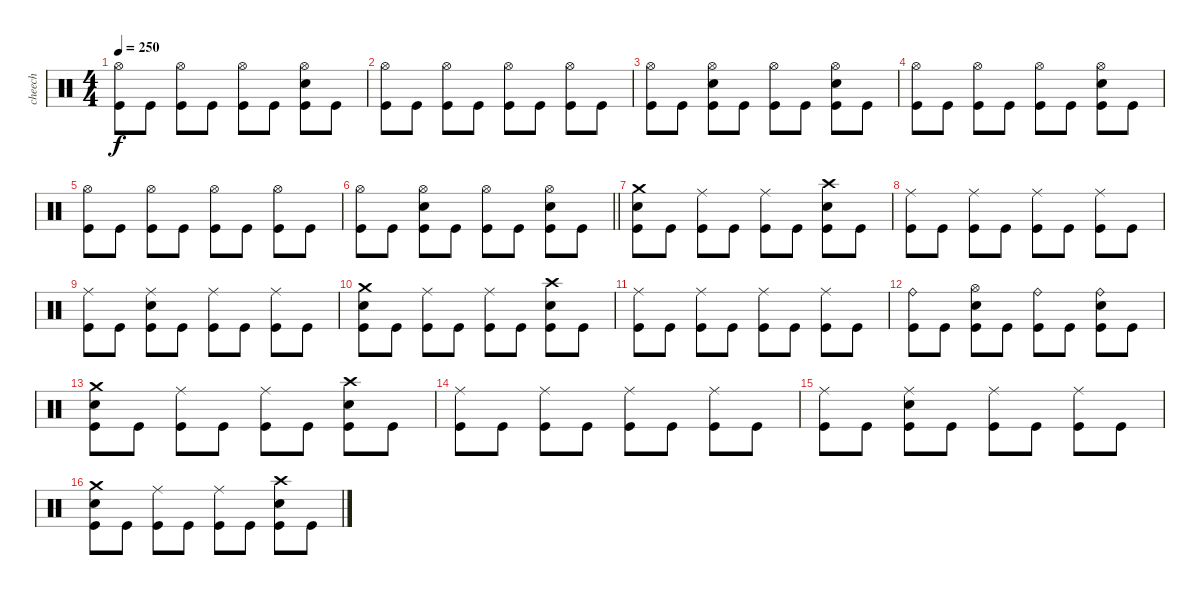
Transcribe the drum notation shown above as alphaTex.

\track ("cheech" "cheech") {instrument percussion}
\staff {score}
\articulation defaults
\ts (4 4)
\tempo 250
\clef neutral
\ks c
("Hi-Hat (open)" "Kick (hit)").8{dy f} "Kick (hit)".8 ("Hi-Hat (open)" "Kick (hit)").8 "Kick (hit)".8 ("Hi-Hat (open)" "Kick (hit)").8 "Kick (hit)".8 ("Hi-Hat (open)" "Electric Snare (hit)" "Kick (hit)").8 "Kick (hit)".8 |
("Hi-Hat (open)" "Kick (hit)").8 "Kick (hit)".8 ("Hi-Hat (open)" "Kick (hit)").8 "Kick (hit)".8 ("Hi-Hat (open)" "Kick (hit)").8 "Kick (hit)".8 ("Hi-Hat (open)" "Kick (hit)").8 "Kick (hit)".8 |
("Hi-Hat (open)" "Kick (hit)").8 "Kick (hit)".8 ("Hi-Hat (open)" "Electric Snare (hit)" "Kick (hit)").8 "Kick (hit)".8 ("Hi-Hat (open)" "Kick (hit)").8 "Kick (hit)".8 ("Hi-Hat (open)" "Electric Snare (hit)" "Kick (hit)").8 "Kick (hit)".8 |
("Hi-Hat (open)" "Kick (hit)").8 "Kick (hit)".8 ("Hi-Hat (open)" "Kick (hit)").8 "Kick (hit)".8 ("Hi-Hat (open)" "Kick (hit)").8 "Kick (hit)".8 ("Hi-Hat (open)" "Electric Snare (hit)" "Kick (hit)").8 "Kick (hit)".8 |
("Hi-Hat (open)" "Kick (hit)").8 "Kick (hit)".8 ("Hi-Hat (open)" "Kick (hit)").8 "Kick (hit)".8 ("Hi-Hat (open)" "Kick (hit)").8 "Kick (hit)".8 ("Hi-Hat (open)" "Kick (hit)").8 "Kick (hit)".8 |
\barLineRight lightlight
("Hi-Hat (open)" "Kick (hit)").8 "Kick (hit)".8 ("Hi-Hat (open)" "Electric Snare (hit)" "Kick (hit)").8 "Kick (hit)".8 ("Hi-Hat (open)" "Kick (hit)").8 "Kick (hit)".8 ("Hi-Hat (open)" "Electric Snare (hit)" "Kick (hit)").8 "Kick (hit)".8 |
("Crash medium (hit)" "Electric Snare (hit)" "Kick (hit)").8 "Kick (hit)".8 ("Ride (middle)" "Kick (hit)").8 "Kick (hit)".8 ("Ride (middle)" "Kick (hit)").8 "Kick (hit)".8 ("Crash high (hit)" "Electric Snare (hit)" "Kick (hit)").8 "Kick (hit)".8 |
("Ride (middle)" "Kick (hit)").8 "Kick (hit)".8 ("Ride (middle)" "Kick (hit)").8 "Kick (hit)".8 ("Ride (middle)" "Kick (hit)").8 "Kick (hit)".8 ("Ride (middle)" "Kick (hit)").8 "Kick (hit)".8 |
("Ride (middle)" "Kick (hit)").8 "Kick (hit)".8 ("Ride (middle)" "Electric Snare (hit)" "Kick (hit)").8 "Kick (hit)".8 ("Ride (middle)" "Kick (hit)").8 "Kick (hit)".8 ("Ride (middle)" "Kick (hit)").8 "Kick (hit)".8 |
("Crash medium (hit)" "Electric Snare (hit)" "Kick (hit)").8 "Kick (hit)".8 ("Ride (middle)" "Kick (hit)").8 "Kick (hit)".8 ("Ride (middle)" "Kick (hit)").8 "Kick (hit)".8 ("Crash high (hit)" "Electric Snare (hit)" "Kick (hit)").8 "Kick (hit)".8 |
("Ride (middle)" "Kick (hit)").8 "Kick (hit)".8 ("Ride (middle)" "Kick (hit)").8 "Kick (hit)".8 ("Ride (middle)" "Kick (hit)").8 "Kick (hit)".8 ("Ride (middle)" "Kick (hit)").8 "Kick (hit)".8 |
("Ride (bell)" "Kick (hit)").8 "Kick (hit)".8 ("Hi-Hat (open)" "Electric Snare (hit)" "Kick (hit)").8 "Kick (hit)".8 ("Ride (bell)" "Kick (hit)").8 "Kick (hit)".8 ("Ride (bell)" "Electric Snare (hit)" "Kick (hit)").8 "Kick (hit)".8 |
("Crash medium (hit)" "Electric Snare (hit)" "Kick (hit)").8 "Kick (hit)".8 ("Ride (middle)" "Kick (hit)").8 "Kick (hit)".8 ("Ride (middle)" "Kick (hit)").8 "Kick (hit)".8 ("Crash high (hit)" "Electric Snare (hit)" "Kick (hit)").8 "Kick (hit)".8 |
("Ride (middle)" "Kick (hit)").8 "Kick (hit)".8 ("Ride (middle)" "Kick (hit)").8 "Kick (hit)".8 ("Ride (middle)" "Kick (hit)").8 "Kick (hit)".8 ("Ride (middle)" "Kick (hit)").8 "Kick (hit)".8 |
("Ride (middle)" "Kick (hit)").8 "Kick (hit)".8 ("Ride (middle)" "Electric Snare (hit)" "Kick (hit)").8 "Kick (hit)".8 ("Ride (middle)" "Kick (hit)").8 "Kick (hit)".8 ("Ride (middle)" "Kick (hit)").8 "Kick (hit)".8 |
("Crash medium (hit)" "Electric Snare (hit)" "Kick (hit)").8 "Kick (hit)".8 ("Ride (middle)" "Kick (hit)").8 "Kick (hit)".8 ("Ride (middle)" "Kick (hit)").8 "Kick (hit)".8 ("Crash high (hit)" "Electric Snare (hit)" "Kick (hit)").8 "Kick (hit)".8
